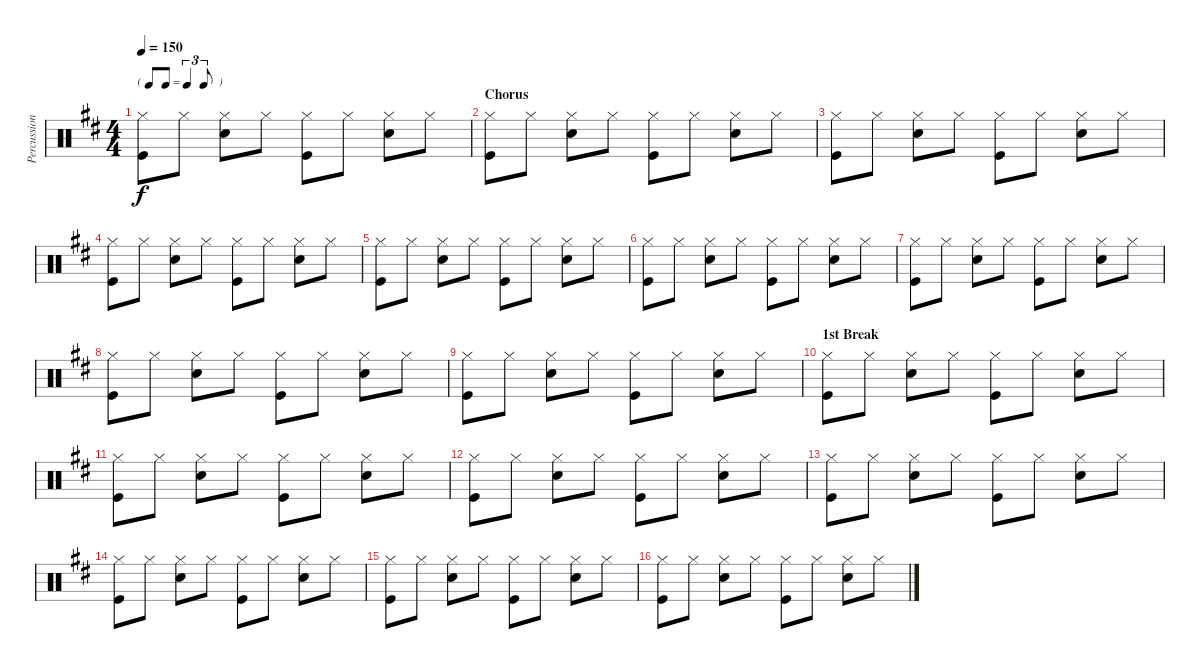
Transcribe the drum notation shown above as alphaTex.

\track ("Percussion" "Percussion") {instrument percussion}
\staff {score}
\articulation defaults
\ts (4 4)
\tf triplet8th
\tempo 150
\clef neutral
\ks d
("Hi-Hat (closed)" "Kick (hit)").8{dy f} "Hi-Hat (closed)".8 ("Hi-Hat (closed)" "Snare (hit) 2").8 "Hi-Hat (closed)".8 ("Hi-Hat (closed)" "Kick (hit)").8 "Hi-Hat (closed)".8 ("Hi-Hat (closed)" "Snare (hit) 2").8 "Hi-Hat (closed)".8 |
\section ("" "Chorus")
("Hi-Hat (closed)" "Kick (hit)").8 "Hi-Hat (closed)".8 ("Hi-Hat (closed)" "Snare (hit) 2").8 "Hi-Hat (closed)".8 ("Hi-Hat (closed)" "Kick (hit)").8 "Hi-Hat (closed)".8 ("Hi-Hat (closed)" "Snare (hit) 2").8 "Hi-Hat (closed)".8 |
("Hi-Hat (closed)" "Kick (hit)").8 "Hi-Hat (closed)".8 ("Hi-Hat (closed)" "Snare (hit) 2").8 "Hi-Hat (closed)".8 ("Hi-Hat (closed)" "Kick (hit)").8 "Hi-Hat (closed)".8 ("Hi-Hat (closed)" "Snare (hit) 2").8 "Hi-Hat (closed)".8 |
("Hi-Hat (closed)" "Kick (hit)").8 "Hi-Hat (closed)".8 ("Hi-Hat (closed)" "Snare (hit) 2").8 "Hi-Hat (closed)".8 ("Hi-Hat (closed)" "Kick (hit)").8 "Hi-Hat (closed)".8 ("Hi-Hat (closed)" "Snare (hit) 2").8 "Hi-Hat (closed)".8 |
("Hi-Hat (closed)" "Kick (hit)").8 "Hi-Hat (closed)".8 ("Hi-Hat (closed)" "Snare (hit) 2").8 "Hi-Hat (closed)".8 ("Hi-Hat (closed)" "Kick (hit)").8 "Hi-Hat (closed)".8 ("Hi-Hat (closed)" "Snare (hit) 2").8 "Hi-Hat (closed)".8 |
("Hi-Hat (closed)" "Kick (hit)").8 "Hi-Hat (closed)".8 ("Hi-Hat (closed)" "Snare (hit) 2").8 "Hi-Hat (closed)".8 ("Hi-Hat (closed)" "Kick (hit)").8 "Hi-Hat (closed)".8 ("Hi-Hat (closed)" "Snare (hit) 2").8 "Hi-Hat (closed)".8 |
("Hi-Hat (closed)" "Kick (hit)").8 "Hi-Hat (closed)".8 ("Hi-Hat (closed)" "Snare (hit) 2").8 "Hi-Hat (closed)".8 ("Hi-Hat (closed)" "Kick (hit)").8 "Hi-Hat (closed)".8 ("Hi-Hat (closed)" "Snare (hit) 2").8 "Hi-Hat (closed)".8 |
("Hi-Hat (closed)" "Kick (hit)").8 "Hi-Hat (closed)".8 ("Hi-Hat (closed)" "Snare (hit) 2").8 "Hi-Hat (closed)".8 ("Hi-Hat (closed)" "Kick (hit)").8 "Hi-Hat (closed)".8 ("Hi-Hat (closed)" "Snare (hit) 2").8 "Hi-Hat (closed)".8 |
("Hi-Hat (closed)" "Kick (hit)").8 "Hi-Hat (closed)".8 ("Hi-Hat (closed)" "Snare (hit) 2").8 "Hi-Hat (closed)".8 ("Hi-Hat (closed)" "Kick (hit)").8 "Hi-Hat (closed)".8 ("Hi-Hat (closed)" "Snare (hit) 2").8 "Hi-Hat (closed)".8 |
\section ("" "1st Break")
("Hi-Hat (closed)" "Kick (hit)").8 "Hi-Hat (closed)".8 ("Hi-Hat (closed)" "Snare (hit) 2").8 "Hi-Hat (closed)".8 ("Hi-Hat (closed)" "Kick (hit)").8 "Hi-Hat (closed)".8 ("Hi-Hat (closed)" "Snare (hit) 2").8 "Hi-Hat (closed)".8 |
("Hi-Hat (closed)" "Kick (hit)").8 "Hi-Hat (closed)".8 ("Hi-Hat (closed)" "Snare (hit) 2").8 "Hi-Hat (closed)".8 ("Hi-Hat (closed)" "Kick (hit)").8 "Hi-Hat (closed)".8 ("Hi-Hat (closed)" "Snare (hit) 2").8 "Hi-Hat (closed)".8 |
("Hi-Hat (closed)" "Kick (hit)").8 "Hi-Hat (closed)".8 ("Hi-Hat (closed)" "Snare (hit) 2").8 "Hi-Hat (closed)".8 ("Hi-Hat (closed)" "Kick (hit)").8 "Hi-Hat (closed)".8 ("Hi-Hat (closed)" "Snare (hit) 2").8 "Hi-Hat (closed)".8 |
("Hi-Hat (closed)" "Kick (hit)").8 "Hi-Hat (closed)".8 ("Hi-Hat (closed)" "Snare (hit) 2").8 "Hi-Hat (closed)".8 ("Hi-Hat (closed)" "Kick (hit)").8 "Hi-Hat (closed)".8 ("Hi-Hat (closed)" "Snare (hit) 2").8 "Hi-Hat (closed)".8 |
("Hi-Hat (closed)" "Kick (hit)").8 "Hi-Hat (closed)".8 ("Hi-Hat (closed)" "Snare (hit) 2").8 "Hi-Hat (closed)".8 ("Hi-Hat (closed)" "Kick (hit)").8 "Hi-Hat (closed)".8 ("Hi-Hat (closed)" "Snare (hit) 2").8 "Hi-Hat (closed)".8 |
("Hi-Hat (closed)" "Kick (hit)").8 "Hi-Hat (closed)".8 ("Hi-Hat (closed)" "Snare (hit) 2").8 "Hi-Hat (closed)".8 ("Hi-Hat (closed)" "Kick (hit)").8 "Hi-Hat (closed)".8 ("Hi-Hat (closed)" "Snare (hit) 2").8 "Hi-Hat (closed)".8 |
("Hi-Hat (closed)" "Kick (hit)").8 "Hi-Hat (closed)".8 ("Hi-Hat (closed)" "Snare (hit) 2").8 "Hi-Hat (closed)".8 ("Hi-Hat (closed)" "Kick (hit)").8 "Hi-Hat (closed)".8 ("Hi-Hat (closed)" "Snare (hit) 2").8 "Hi-Hat (closed)".8
